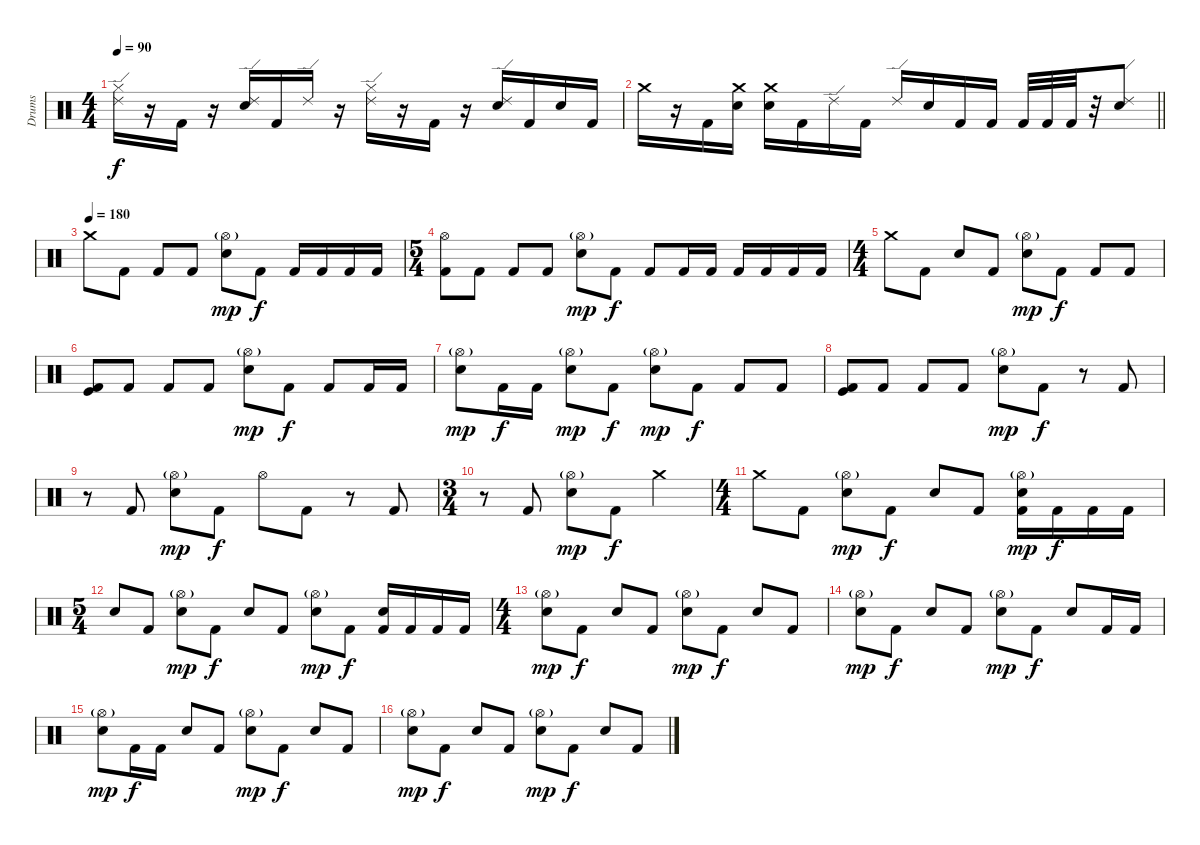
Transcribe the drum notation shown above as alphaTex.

\track ("Drums" "Drums") {instrument percussion}
\staff {score}
\articulation defaults
\ts (4 4)
\tempo 90
\clef neutral
\ks c
("Hi-Hat (closed)" "Ride (edge) 2").16{dy f} r.16 "Kick (hit) 2".16 r.16 ("Ride (edge) 2" "Electric Snare (hit)").16 "Kick (hit) 2".16 "Ride (edge) 2".16 r.16 ("Hi-Hat (closed)" "Ride (edge) 2").16 r.16 "Kick (hit) 2".16 r.16 ("Ride (edge) 2" "Electric Snare (hit)").16 "Kick (hit) 2".16 "Electric Snare (hit)".16 "Kick (hit) 2".16 |
\barLineRight lightlight "Crash medium (hit)".16
r.16 "Kick (hit) 2".16 ("Crash medium (hit)" "Electric Snare (hit)").16 ("Crash medium (hit)" "Electric Snare (hit)").16 "Kick (hit) 2".16 "Ride (edge) 2".16 "Kick (hit) 2".16 "Ride (edge) 2".16 "Electric Snare (hit)".16 "Kick (hit) 2".16 "Kick (hit) 2".16 "Kick (hit) 2".32 "Kick (hit) 2".32 "Kick (hit) 2".32 r.32 ("Ride (edge) 2" "Electric Snare (hit)").8 |
\tempo (180)
"Crash medium (hit)".8 "Kick (hit) 2".8 "Kick (hit) 2".8 "Kick (hit) 2".8 ("Hi-Hat (open)"{g} "Electric Snare (hit)").8{dy mp} "Kick (hit) 2".8{dy f} "Kick (hit) 2".16 "Kick (hit) 2".16 "Kick (hit) 2".16 "Kick (hit) 2".16 |
\ts (5 4)
("Hi-Hat (open)" "Kick (hit) 2").8 "Kick (hit) 2".8 "Kick (hit) 2".8 "Kick (hit) 2".8 ("Hi-Hat (open)"{g} "Electric Snare (hit)").8{dy mp} "Kick (hit) 2".8{dy f} "Kick (hit) 2".8 "Kick (hit) 2".16 "Kick (hit) 2".16 "Kick (hit) 2".16 "Kick (hit) 2".16 "Kick (hit) 2".16 "Kick (hit) 2".16 |
\ts (4 4)
"Crash medium (hit)".8 "Kick (hit) 2".8 "Electric Snare (hit)".8 "Kick (hit) 2".8 ("Hi-Hat (open)"{g} "Electric Snare (hit)").8{dy mp} "Kick (hit) 2".8{dy f} "Kick (hit) 2".8 "Kick (hit) 2".8 |
("Kick (hit)" "Kick (hit) 2").8 "Kick (hit) 2".8 "Kick (hit) 2".8 "Kick (hit) 2".8 ("Hi-Hat (open)"{g} "Electric Snare (hit)").8{dy mp} "Kick (hit) 2".8{dy f} "Kick (hit) 2".8 "Kick (hit) 2".16 "Kick (hit) 2".16 |
("Hi-Hat (open)"{g} "Electric Snare (hit)").8{dy mp} "Kick (hit) 2".16{dy f} "Kick (hit) 2".16 ("Hi-Hat (open)"{g} "Electric Snare (hit)").8{dy mp} "Kick (hit) 2".8{dy f} ("Hi-Hat (open)"{g} "Electric Snare (hit)").8{dy mp} "Kick (hit) 2".8{dy f} "Kick (hit) 2".8 "Kick (hit) 2".8 |
("Kick (hit)" "Kick (hit) 2").8 "Kick (hit) 2".8 "Kick (hit) 2".8 "Kick (hit) 2".8 ("Hi-Hat (open)"{g} "Electric Snare (hit)").8{dy mp} "Kick (hit) 2".8{dy f} r.8 "Kick (hit) 2".8 |
r.8 "Kick (hit) 2".8 ("Hi-Hat (open)"{g} "Electric Snare (hit)").8{dy mp} "Kick (hit) 2".8{dy f} "Hi-Hat (open)".8 "Kick (hit) 2".8 r.8 "Kick (hit) 2".8 |
\ts (3 4)
r.8 "Kick (hit) 2".8 ("Hi-Hat (open)"{g} "Electric Snare (hit)").8{dy mp} "Kick (hit) 2".8{dy f} "Crash medium (hit)".4 |
\ts (4 4)
"Crash medium (hit)".8 "Kick (hit) 2".8 ("Hi-Hat (open)"{g} "Electric Snare (hit)").8{dy mp} "Kick (hit) 2".8{dy f} "Electric Snare (hit)".8 "Kick (hit) 2".8 ("Hi-Hat (open)"{g} "Electric Snare (hit)" "Kick (hit) 2").16{dy mp} "Kick (hit) 2".16{dy f} "Kick (hit) 2".16 "Kick (hit) 2".16 |
\ts (5 4)
"Electric Snare (hit)".8 "Kick (hit) 2".8 ("Hi-Hat (open)"{g} "Electric Snare (hit)").8{dy mp} "Kick (hit) 2".8{dy f} "Electric Snare (hit)".8 "Kick (hit) 2".8 ("Hi-Hat (open)"{g} "Electric Snare (hit)").8{dy mp} "Kick (hit) 2".8{dy f} ("Electric Snare (hit)" "Kick (hit) 2").16 "Kick (hit) 2".16 "Kick (hit) 2".16 "Kick (hit) 2".16 |
\ts (4 4)
("Hi-Hat (open)"{g} "Electric Snare (hit)").8{dy mp} "Kick (hit) 2".8{dy f} "Electric Snare (hit)".8 "Kick (hit) 2".8 ("Hi-Hat (open)"{g} "Electric Snare (hit)").8{dy mp} "Kick (hit) 2".8{dy f} "Electric Snare (hit)".8 "Kick (hit) 2".8 |
("Hi-Hat (open)"{g} "Electric Snare (hit)").8{dy mp} "Kick (hit) 2".8{dy f} "Electric Snare (hit)".8 "Kick (hit) 2".8 ("Hi-Hat (open)"{g} "Electric Snare (hit)").8{dy mp} "Kick (hit) 2".8{dy f} "Electric Snare (hit)".8 "Kick (hit) 2".16 "Kick (hit) 2".16 |
("Hi-Hat (open)"{g} "Electric Snare (hit)").8{dy mp} "Kick (hit) 2".16{dy f} "Kick (hit) 2".16 "Electric Snare (hit)".8 "Kick (hit) 2".8 ("Hi-Hat (open)"{g} "Electric Snare (hit)").8{dy mp} "Kick (hit) 2".8{dy f} "Electric Snare (hit)".8 "Kick (hit) 2".8 |
("Hi-Hat (open)"{g} "Electric Snare (hit)").8{dy mp} "Kick (hit) 2".8{dy f} "Electric Snare (hit)".8 "Kick (hit) 2".8 ("Hi-Hat (open)"{g} "Electric Snare (hit)").8{dy mp} "Kick (hit) 2".8{dy f} "Electric Snare (hit)".8 "Kick (hit) 2".8
